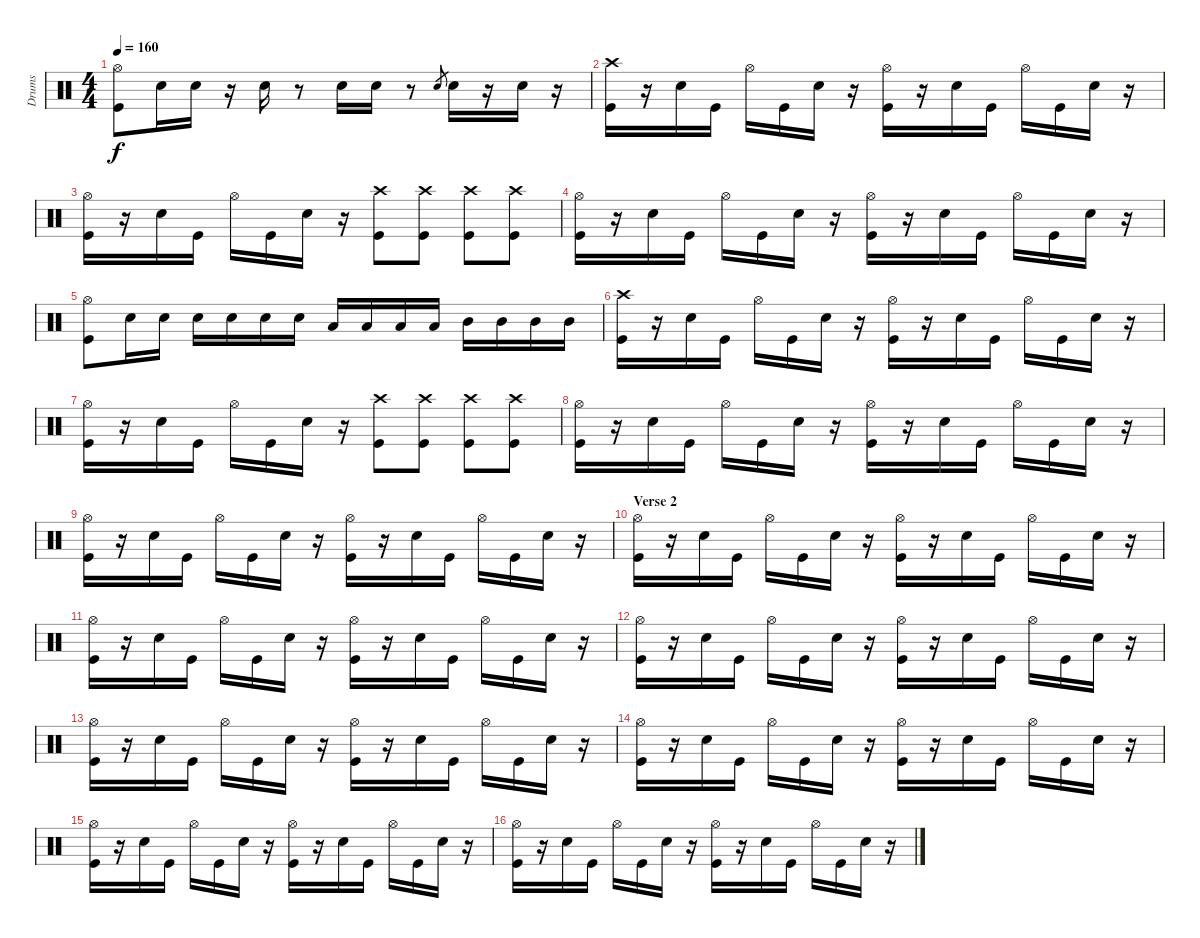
\track ("Drums" "Drums") {instrument percussion}
\staff {score}
\articulation defaults
\ts (4 4)
\tempo 160
\clef neutral
\ks c
("Kick (hit)" "Hi-Hat (open)").8{dy f} "Snare (hit) 2".16 "Snare (hit) 2".16 r.16 "Snare (hit) 2".16 r.8 "Snare (hit) 2".16 "Snare (hit) 2".16 r.8 "Snare (hit) 2".8{gr} "Snare (hit) 2".16 r.16 "Snare (hit) 2".16 r.16 |
("Kick (hit)" "Crash high (hit)").16 r.16 "Snare (hit) 2".16 "Kick (hit)".16 "Hi-Hat (open)".16 "Kick (hit)".16 "Snare (hit) 2".16 r.16 ("Kick (hit)" "Hi-Hat (open)").16 r.16 "Snare (hit) 2".16 "Kick (hit)".16 "Hi-Hat (open)".16 "Kick (hit)".16 "Snare (hit) 2".16 r.16 |
("Kick (hit)" "Hi-Hat (open)").16 r.16 "Snare (hit) 2".16 "Kick (hit)".16 "Hi-Hat (open)".16 "Kick (hit)".16 "Snare (hit) 2".16 r.16 ("Kick (hit)" "Crash high (hit)").8 ("Kick (hit)" "Crash high (hit)").8 ("Kick (hit)" "Crash high (hit)").8 ("Kick (hit)" "Crash high (hit)").8 |
("Kick (hit)" "Hi-Hat (open)").16 r.16 "Snare (hit) 2".16 "Kick (hit)".16 "Hi-Hat (open)".16 "Kick (hit)".16 "Snare (hit) 2".16 r.16 ("Kick (hit)" "Hi-Hat (open)").16 r.16 "Snare (hit) 2".16 "Kick (hit)".16 "Hi-Hat (open)".16 "Kick (hit)".16 "Snare (hit) 2".16 r.16 |
("Kick (hit)" "Hi-Hat (open)").8 "Snare (hit) 2".16 "Snare (hit) 2".16 "Snare (hit) 2".16 "Snare (hit) 2".16 "Snare (hit) 2".16 "Snare (hit) 2".16 "Low Tom (hit)".16 "Low Tom (hit)".16 "Low Tom (hit)".16 "Low Tom (hit)".16 "Mid Tom (hit)".16 "Mid Tom (hit)".16 "Mid Tom (hit)".16 "Mid Tom (hit)".16 |
("Kick (hit)" "Crash high (hit)").16 r.16 "Snare (hit) 2".16 "Kick (hit)".16 "Hi-Hat (open)".16 "Kick (hit)".16 "Snare (hit) 2".16 r.16 ("Kick (hit)" "Hi-Hat (open)").16 r.16 "Snare (hit) 2".16 "Kick (hit)".16 "Hi-Hat (open)".16 "Kick (hit)".16 "Snare (hit) 2".16 r.16 |
("Kick (hit)" "Hi-Hat (open)").16 r.16 "Snare (hit) 2".16 "Kick (hit)".16 "Hi-Hat (open)".16 "Kick (hit)".16 "Snare (hit) 2".16 r.16 ("Kick (hit)" "Crash high (hit)").8 ("Kick (hit)" "Crash high (hit)").8 ("Kick (hit)" "Crash high (hit)").8 ("Kick (hit)" "Crash high (hit)").8 |
("Kick (hit)" "Hi-Hat (open)").16 r.16 "Snare (hit) 2".16 "Kick (hit)".16 "Hi-Hat (open)".16 "Kick (hit)".16 "Snare (hit) 2".16 r.16 ("Kick (hit)" "Hi-Hat (open)").16 r.16 "Snare (hit) 2".16 "Kick (hit)".16 "Hi-Hat (open)".16 "Kick (hit)".16 "Snare (hit) 2".16 r.16 |
("Kick (hit)" "Hi-Hat (open)").16 r.16 "Snare (hit) 2".16 "Kick (hit)".16 "Hi-Hat (open)".16 "Kick (hit)".16 "Snare (hit) 2".16 r.16 ("Kick (hit)" "Hi-Hat (open)").16 r.16 "Snare (hit) 2".16 "Kick (hit)".16 "Hi-Hat (open)".16 "Kick (hit)".16 "Snare (hit) 2".16 r.16 |
\section ("" "Verse 2")
("Kick (hit)" "Hi-Hat (open)").16 r.16 "Snare (hit) 2".16 "Kick (hit)".16 "Hi-Hat (open)".16 "Kick (hit)".16 "Snare (hit) 2".16 r.16 ("Kick (hit)" "Hi-Hat (open)").16 r.16 "Snare (hit) 2".16 "Kick (hit)".16 "Hi-Hat (open)".16 "Kick (hit)".16 "Snare (hit) 2".16 r.16 |
("Kick (hit)" "Hi-Hat (open)").16 r.16 "Snare (hit) 2".16 "Kick (hit)".16 "Hi-Hat (open)".16 "Kick (hit)".16 "Snare (hit) 2".16 r.16 ("Kick (hit)" "Hi-Hat (open)").16 r.16 "Snare (hit) 2".16 "Kick (hit)".16 "Hi-Hat (open)".16 "Kick (hit)".16 "Snare (hit) 2".16 r.16 |
("Kick (hit)" "Hi-Hat (open)").16 r.16 "Snare (hit) 2".16 "Kick (hit)".16 "Hi-Hat (open)".16 "Kick (hit)".16 "Snare (hit) 2".16 r.16 ("Kick (hit)" "Hi-Hat (open)").16 r.16 "Snare (hit) 2".16 "Kick (hit)".16 "Hi-Hat (open)".16 "Kick (hit)".16 "Snare (hit) 2".16 r.16 |
("Kick (hit)" "Hi-Hat (open)").16 r.16 "Snare (hit) 2".16 "Kick (hit)".16 "Hi-Hat (open)".16 "Kick (hit)".16 "Snare (hit) 2".16 r.16 ("Kick (hit)" "Hi-Hat (open)").16 r.16 "Snare (hit) 2".16 "Kick (hit)".16 "Hi-Hat (open)".16 "Kick (hit)".16 "Snare (hit) 2".16 r.16 |
("Kick (hit)" "Hi-Hat (open)").16 r.16 "Snare (hit) 2".16 "Kick (hit)".16 "Hi-Hat (open)".16 "Kick (hit)".16 "Snare (hit) 2".16 r.16 ("Kick (hit)" "Hi-Hat (open)").16 r.16 "Snare (hit) 2".16 "Kick (hit)".16 "Hi-Hat (open)".16 "Kick (hit)".16 "Snare (hit) 2".16 r.16 |
("Kick (hit)" "Hi-Hat (open)").16 r.16 "Snare (hit) 2".16 "Kick (hit)".16 "Hi-Hat (open)".16 "Kick (hit)".16 "Snare (hit) 2".16 r.16 ("Kick (hit)" "Hi-Hat (open)").16 r.16 "Snare (hit) 2".16 "Kick (hit)".16 "Hi-Hat (open)".16 "Kick (hit)".16 "Snare (hit) 2".16 r.16 |
("Kick (hit)" "Hi-Hat (open)").16 r.16 "Snare (hit) 2".16 "Kick (hit)".16 "Hi-Hat (open)".16 "Kick (hit)".16 "Snare (hit) 2".16 r.16 ("Kick (hit)" "Hi-Hat (open)").16 r.16 "Snare (hit) 2".16 "Kick (hit)".16 "Hi-Hat (open)".16 "Kick (hit)".16 "Snare (hit) 2".16 r.16
